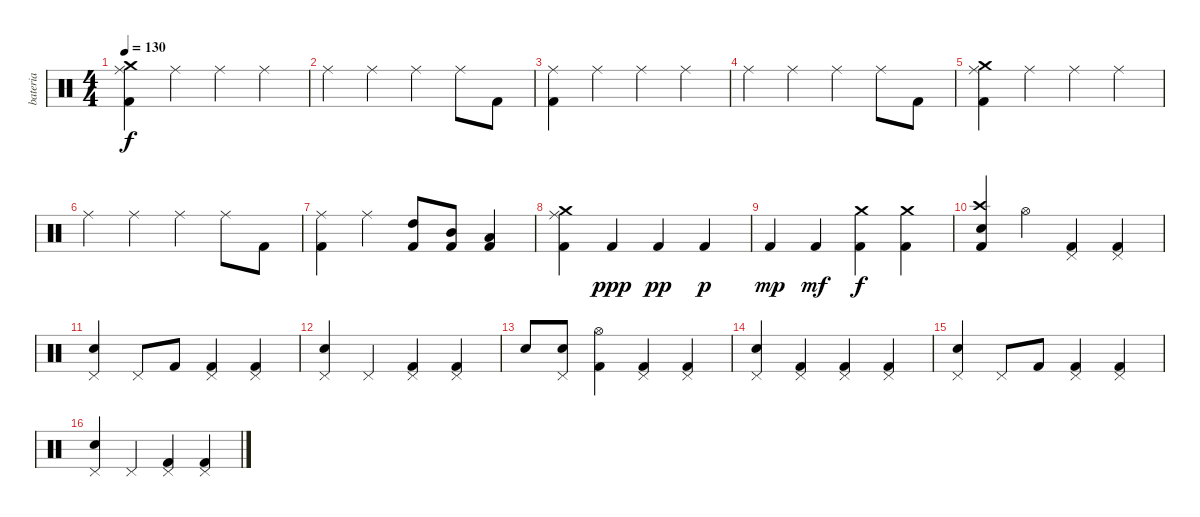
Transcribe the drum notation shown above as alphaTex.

\track ("bateria" "bateria") {instrument percussion}
\staff {score}
\articulation defaults
\ts (4 4)
\tempo 130
\clef neutral
\ks c
("Ride (middle)" "Crash medium (hit)" "Kick (hit) 2").4{dy f} "Ride (middle)".4 "Ride (middle)".4 "Ride (middle)".4 |
"Ride (middle)".4 "Ride (middle)".4 "Ride (middle)".4 "Ride (middle)".8 "Kick (hit) 2".8 |
("Ride (middle)" "Kick (hit) 2").4 "Ride (middle)".4 "Ride (middle)".4 "Ride (middle)".4 |
"Ride (middle)".4 "Ride (middle)".4 "Ride (middle)".4 "Ride (middle)".8 "Kick (hit) 2".8 |
("Ride (middle)" "Kick (hit) 2" "Crash medium (hit)").4 "Ride (middle)".4 "Ride (middle)".4 "Ride (middle)".4 |
"Ride (middle)".4 "Ride (middle)".4 "Ride (middle)".4 "Ride (middle)".8 "Kick (hit) 2".8 |
("Ride (middle)" "Kick (hit) 2").4 "Ride (middle)".4 ("High Tom (hit)" "Kick (hit) 2").8 ("Mid Tom (hit)" "Kick (hit) 2").8 ("Low Tom (hit)" "Kick (hit) 2").4 |
("Ride (middle)" "Kick (hit) 2" "Crash medium (hit)").4 "Kick (hit) 2".4{dy ppp} "Kick (hit) 2".4{dy pp} "Kick (hit) 2".4{dy p} |
"Kick (hit) 2".4{dy mp} "Kick (hit) 2".4{dy mf} ("Crash medium (hit)" "Kick (hit) 2").4{dy f} ("Crash medium (hit)" "Kick (hit) 2").4 |
("Crash high (hit)" "Snare (hit) 2" "Kick (hit) 2").4 "Hi-Hat (open)".4 ("Pedal Hi-Hat (hit)" "Kick (hit) 2").4 ("Pedal Hi-Hat (hit)" "Kick (hit) 2").4 |
("Pedal Hi-Hat (hit)" "Snare (hit) 2").4 "Pedal Hi-Hat (hit)".8 "Kick (hit) 2".8 ("Pedal Hi-Hat (hit)" "Kick (hit) 2").4 ("Pedal Hi-Hat (hit)" "Kick (hit) 2").4 |
("Pedal Hi-Hat (hit)" "Snare (hit) 2").4 "Pedal Hi-Hat (hit)".4 ("Pedal Hi-Hat (hit)" "Kick (hit) 2").4 ("Pedal Hi-Hat (hit)" "Kick (hit) 2").4 |
"Snare (hit) 2".8 ("Pedal Hi-Hat (hit)" "Snare (hit) 2").8 ("Hi-Hat (open)" "Kick (hit) 2").4 ("Pedal Hi-Hat (hit)" "Kick (hit) 2").4 ("Pedal Hi-Hat (hit)" "Kick (hit) 2").4 |
("Pedal Hi-Hat (hit)" "Snare (hit) 2").4 ("Pedal Hi-Hat (hit)" "Kick (hit) 2").4 ("Pedal Hi-Hat (hit)" "Kick (hit) 2").4 ("Pedal Hi-Hat (hit)" "Kick (hit) 2").4 |
("Pedal Hi-Hat (hit)" "Snare (hit) 2").4 "Pedal Hi-Hat (hit)".8 "Kick (hit) 2".8 ("Pedal Hi-Hat (hit)" "Kick (hit) 2").4 ("Pedal Hi-Hat (hit)" "Kick (hit) 2").4 |
("Pedal Hi-Hat (hit)" "Snare (hit) 2").4 "Pedal Hi-Hat (hit)".4 ("Pedal Hi-Hat (hit)" "Kick (hit) 2").4 ("Pedal Hi-Hat (hit)" "Kick (hit) 2").4
